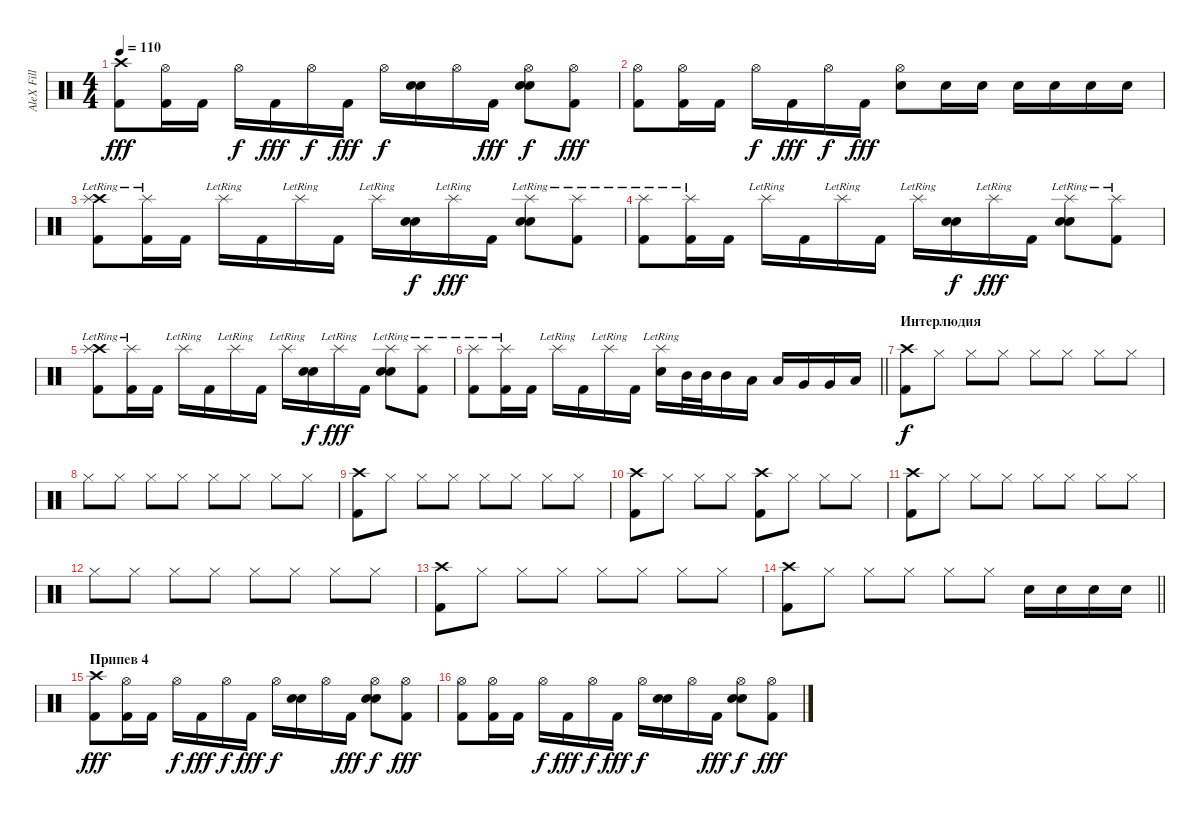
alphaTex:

\track ("AleX Fill" "AleX Fill") {instrument percussion}
\staff {score}
\articulation defaults
\ts (4 4)
\tempo 110
\clef neutral
\ks c
("Crash high (hit)" "Kick (hit) 2").8{dy fff} ("Hi-Hat (open)" "Kick (hit) 2").16 "Kick (hit) 2".16 "Hi-Hat (open)".16{dy f} "Kick (hit) 2".16{dy fff} "Hi-Hat (open)".16{dy f} "Kick (hit) 2".16{dy fff} "Hi-Hat (open)".16{dy f} ("Electric Snare (hit)" "Electric Snare (hit)").16 "Hi-Hat (open)".16 "Kick (hit) 2".16{dy fff} ("Hi-Hat (open)" "Electric Snare (hit)" "Electric Snare (hit)").8{dy f} ("Hi-Hat (open)" "Kick (hit) 2").8{dy fff} |
("Hi-Hat (open)" "Kick (hit) 2").8 ("Hi-Hat (open)" "Kick (hit) 2").16 "Kick (hit) 2".16 "Hi-Hat (open)".16{dy f} "Kick (hit) 2".16{dy fff} "Hi-Hat (open)".16{dy f} "Kick (hit) 2".16{dy fff} ("Hi-Hat (open)" "Electric Snare (hit)").8 "Electric Snare (hit)".16 "Electric Snare (hit)".16 "Electric Snare (hit)".16 "Electric Snare (hit)".16 "Electric Snare (hit)".16 "Electric Snare (hit)".16 |
("Crash high (hit)" "Splash (hit)"{lr} "Kick (hit) 2").8 ("Splash (hit)"{lr} "Kick (hit) 2").16 "Kick (hit) 2".16 "Splash (hit)"{lr}.16 "Kick (hit) 2".16 "Splash (hit)"{lr}.16 "Kick (hit) 2".16 "Splash (hit)"{lr}.16 ("Electric Snare (hit)" "Electric Snare (hit)").16{dy f} "Splash (hit)"{lr}.16{dy fff} "Kick (hit) 2".16 ("Splash (hit)"{lr} "Electric Snare (hit)" "Electric Snare (hit)").8 ("Splash (hit)"{lr} "Kick (hit) 2").8 |
("Splash (hit)"{lr} "Kick (hit) 2").8 ("Splash (hit)"{lr} "Kick (hit) 2").16 "Kick (hit) 2".16 "Splash (hit)"{lr}.16 "Kick (hit) 2".16 "Splash (hit)"{lr}.16 "Kick (hit) 2".16 "Splash (hit)"{lr}.16 ("Electric Snare (hit)" "Electric Snare (hit)").16{dy f} "Splash (hit)"{lr}.16{dy fff} "Kick (hit) 2".16 ("Splash (hit)"{lr} "Electric Snare (hit)" "Electric Snare (hit)").8 ("Splash (hit)"{lr} "Kick (hit) 2").8 |
("Crash high (hit)" "Splash (hit)"{lr} "Kick (hit) 2").8 ("Splash (hit)"{lr} "Kick (hit) 2").16 "Kick (hit) 2".16 "Splash (hit)"{lr}.16 "Kick (hit) 2".16 "Splash (hit)"{lr}.16 "Kick (hit) 2".16 "Splash (hit)"{lr}.16 ("Electric Snare (hit)" "Electric Snare (hit)").16{dy f} "Splash (hit)"{lr}.16{dy fff} "Kick (hit) 2".16 ("Splash (hit)"{lr} "Electric Snare (hit)" "Electric Snare (hit)").8 ("Splash (hit)"{lr} "Kick (hit) 2").8 |
\barLineRight lightlight
("Splash (hit)"{lr} "Kick (hit) 2").8 ("Splash (hit)"{lr} "Kick (hit) 2").16 "Kick (hit) 2".16 "Splash (hit)"{lr}.16 "Kick (hit) 2".16 "Splash (hit)"{lr}.16 "Kick (hit) 2".16 ("Splash (hit)"{lr} "Electric Snare (hit)").16 "Mid Tom (hit)".32 "Mid Tom (hit)".32 "Mid Tom (hit)".16 "Low Tom (hit)".16 "Low Tom (hit)".16 "Very Low Tom (hit)".16 "Very Low Tom (hit)".16 "Low Floor Tom (hit)".16 |
\section ("" "Интерлюдия")
("Crash high (hit)" "Kick (hit) 2").8{dy f} "Hi-Hat (closed)".8 "Hi-Hat (closed)".8 "Hi-Hat (closed)".8 "Hi-Hat (closed)".8 "Hi-Hat (closed)".8 "Hi-Hat (closed)".8 "Hi-Hat (closed)".8 |
"Hi-Hat (closed)".8 "Hi-Hat (closed)".8 "Hi-Hat (closed)".8 "Hi-Hat (closed)".8 "Hi-Hat (closed)".8 "Hi-Hat (closed)".8 "Hi-Hat (closed)".8 "Hi-Hat (closed)".8 |
("Crash high (hit)" "Kick (hit) 2").8 "Hi-Hat (closed)".8 "Hi-Hat (closed)".8 "Hi-Hat (closed)".8 "Hi-Hat (closed)".8 "Hi-Hat (closed)".8 "Hi-Hat (closed)".8 "Hi-Hat (closed)".8 |
("Crash high (hit)" "Kick (hit) 2").8 "Hi-Hat (closed)".8 "Hi-Hat (closed)".8 "Hi-Hat (closed)".8 ("Crash high (hit)" "Kick (hit) 2").8 "Hi-Hat (closed)".8 "Hi-Hat (closed)".8 "Hi-Hat (closed)".8 |
("Crash high (hit)" "Kick (hit) 2").8 "Hi-Hat (closed)".8 "Hi-Hat (closed)".8 "Hi-Hat (closed)".8 "Hi-Hat (closed)".8 "Hi-Hat (closed)".8 "Hi-Hat (closed)".8 "Hi-Hat (closed)".8 |
"Hi-Hat (closed)".8 "Hi-Hat (closed)".8 "Hi-Hat (closed)".8 "Hi-Hat (closed)".8 "Hi-Hat (closed)".8 "Hi-Hat (closed)".8 "Hi-Hat (closed)".8 "Hi-Hat (closed)".8 |
("Crash high (hit)" "Kick (hit) 2").8 "Hi-Hat (closed)".8 "Hi-Hat (closed)".8 "Hi-Hat (closed)".8 "Hi-Hat (closed)".8 "Hi-Hat (closed)".8 "Hi-Hat (closed)".8 "Hi-Hat (closed)".8 |
\barLineRight lightlight
("Crash high (hit)" "Kick (hit) 2").8 "Hi-Hat (closed)".8 "Hi-Hat (closed)".8 "Hi-Hat (closed)".8 "Hi-Hat (closed)".8 "Hi-Hat (closed)".8 "Electric Snare (hit)".16 "Electric Snare (hit)".16 "Electric Snare (hit)".16 "Electric Snare (hit)".16 |
\section ("" "Припев 4")
("Crash high (hit)" "Kick (hit) 2").8{dy fff} ("Hi-Hat (open)" "Kick (hit) 2").16 "Kick (hit) 2".16 "Hi-Hat (open)".16{dy f} "Kick (hit) 2".16{dy fff} "Hi-Hat (open)".16{dy f} "Kick (hit) 2".16{dy fff} "Hi-Hat (open)".16{dy f} ("Electric Snare (hit)" "Electric Snare (hit)").16 "Hi-Hat (open)".16 "Kick (hit) 2".16{dy fff} ("Hi-Hat (open)" "Electric Snare (hit)" "Electric Snare (hit)").8{dy f} ("Hi-Hat (open)" "Kick (hit) 2").8{dy fff} |
("Hi-Hat (open)" "Kick (hit) 2").8 ("Hi-Hat (open)" "Kick (hit) 2").16 "Kick (hit) 2".16 "Hi-Hat (open)".16{dy f} "Kick (hit) 2".16{dy fff} "Hi-Hat (open)".16{dy f} "Kick (hit) 2".16{dy fff} "Hi-Hat (open)".16{dy f} ("Electric Snare (hit)" "Electric Snare (hit)").16 "Hi-Hat (open)".16 "Kick (hit) 2".16{dy fff} ("Hi-Hat (open)" "Electric Snare (hit)" "Electric Snare (hit)").8{dy f} ("Hi-Hat (open)" "Kick (hit) 2").8{dy fff}
